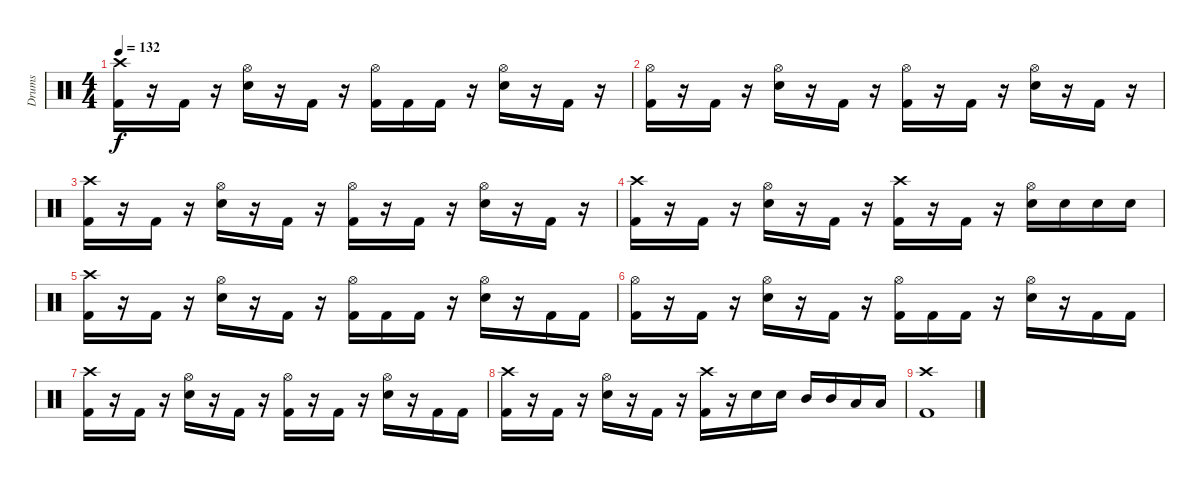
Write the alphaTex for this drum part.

\track ("Drums" "Drums") {instrument percussion}
\staff {score}
\articulation defaults
\ts (4 4)
\tempo 132
\clef neutral
\ks c
("Kick (hit) 2" "Crash high (hit)").16{dy f} r.16 "Kick (hit) 2".16 r.16 ("Snare (hit) 2" "Hi-Hat (open)").16 r.16 "Kick (hit) 2".16 r.16 ("Kick (hit) 2" "Hi-Hat (open)").16 "Kick (hit) 2".16 "Kick (hit) 2".16 r.16 ("Snare (hit) 2" "Hi-Hat (open)").16 r.16 "Kick (hit) 2".16 r.16 |
("Kick (hit) 2" "Hi-Hat (open)").16 r.16 "Kick (hit) 2".16 r.16 ("Snare (hit) 2" "Hi-Hat (open)").16 r.16 "Kick (hit) 2".16 r.16 ("Kick (hit) 2" "Hi-Hat (open)").16 r.16 "Kick (hit) 2".16 r.16 ("Snare (hit) 2" "Hi-Hat (open)").16 r.16 "Kick (hit) 2".16 r.16 |
("Kick (hit) 2" "Crash high (hit)").16 r.16 "Kick (hit) 2".16 r.16 ("Snare (hit) 2" "Hi-Hat (open)").16 r.16 "Kick (hit) 2".16 r.16 ("Kick (hit) 2" "Hi-Hat (open)").16 r.16 "Kick (hit) 2".16 r.16 ("Snare (hit) 2" "Hi-Hat (open)").16 r.16 "Kick (hit) 2".16 r.16 |
("Kick (hit) 2" "Crash high (hit)").16 r.16 "Kick (hit) 2".16 r.16 ("Snare (hit) 2" "Hi-Hat (open)").16 r.16 "Kick (hit) 2".16 r.16 ("Kick (hit) 2" "Crash high (hit)").16 r.16 "Kick (hit) 2".16 r.16 ("Snare (hit) 2" "Hi-Hat (open)").16 "Snare (hit) 2".16 "Snare (hit) 2".16 "Snare (hit) 2".16 |
("Kick (hit) 2" "Crash high (hit)").16 r.16 "Kick (hit) 2".16 r.16 ("Snare (hit) 2" "Hi-Hat (open)").16 r.16 "Kick (hit) 2".16 r.16 ("Kick (hit) 2" "Hi-Hat (open)").16 "Kick (hit) 2".16 "Kick (hit) 2".16 r.16 ("Snare (hit) 2" "Hi-Hat (open)").16 r.16 "Kick (hit) 2".16 "Kick (hit) 2".16 |
("Kick (hit) 2" "Hi-Hat (open)").16 r.16 "Kick (hit) 2".16 r.16 ("Snare (hit) 2" "Hi-Hat (open)").16 r.16 "Kick (hit) 2".16 r.16 ("Kick (hit) 2" "Hi-Hat (open)").16 "Kick (hit) 2".16 "Kick (hit) 2".16 r.16 ("Snare (hit) 2" "Hi-Hat (open)").16 r.16 "Kick (hit) 2".16 "Kick (hit) 2".16 |
("Kick (hit) 2" "Crash high (hit)").16 r.16 "Kick (hit) 2".16 r.16 ("Snare (hit) 2" "Hi-Hat (open)").16 r.16 "Kick (hit) 2".16 r.16 ("Kick (hit) 2" "Hi-Hat (open)").16 r.16 "Kick (hit) 2".16 r.16 ("Snare (hit) 2" "Hi-Hat (open)").16 r.16 "Kick (hit) 2".16 "Kick (hit) 2".16 |
("Kick (hit) 2" "Crash high (hit)").16 r.16 "Kick (hit) 2".16 r.16 ("Snare (hit) 2" "Hi-Hat (open)").16 r.16 "Kick (hit) 2".16 r.16 ("Kick (hit) 2" "Crash high (hit)").16 r.16 "Snare (hit) 2".16 "Snare (hit) 2".16 "Mid Tom (hit)".16 "Mid Tom (hit)".16 "Low Tom (hit)".16 "Low Tom (hit)".16 |
("Crash high (hit)" "Kick (hit) 2").1
